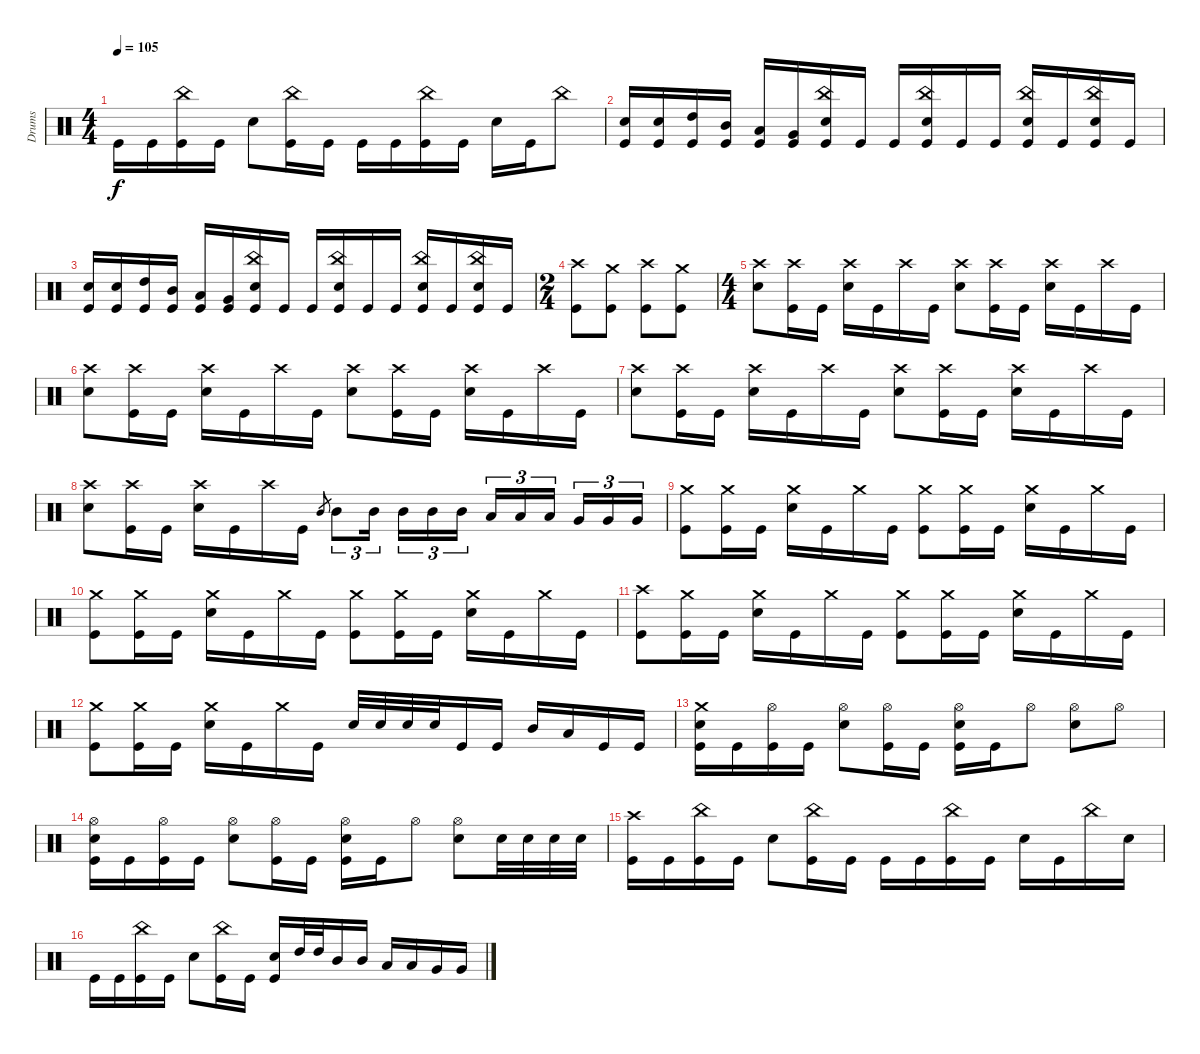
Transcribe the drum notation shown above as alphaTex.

\track ("Drums" "Drums") {instrument percussion}
\staff {score}
\articulation defaults
\ts (4 4)
\tempo 105
\clef neutral
\ks c "Kick (hit)".16{dy f} "Kick (hit)".16
("China (hit)" "Kick (hit)").16 "Kick (hit)".16 "Electric Snare (hit)".8 ("China (hit)" "Kick (hit)").16 "Kick (hit)".16 "Kick (hit)".16 "Kick (hit)".16 ("China (hit)" "Kick (hit)").16 "Kick (hit)".16 "Electric Snare (hit)".16 "Kick (hit)".16 "China (hit)".8 |
("Electric Snare (hit)" "Kick (hit)").16 ("Electric Snare (hit)" "Kick (hit)").16 ("High Tom (hit)" "Kick (hit)").16 ("Mid Tom (hit)" "Kick (hit)").16 ("Low Tom (hit)" "Kick (hit)").16 ("Very Low Tom (hit)" "Kick (hit)").16 ("China (hit)" "Electric Snare (hit)" "Kick (hit)").16 "Kick (hit)".16 "Kick (hit)".16 ("China (hit)" "Electric Snare (hit)" "Kick (hit)").16 "Kick (hit)".16 "Kick (hit)".16 ("China (hit)" "Electric Snare (hit)" "Kick (hit)").16 "Kick (hit)".16 ("China (hit)" "Electric Snare (hit)" "Kick (hit)").16 "Kick (hit)".16 |
("Electric Snare (hit)" "Kick (hit)").16 ("Electric Snare (hit)" "Kick (hit)").16 ("High Tom (hit)" "Kick (hit)").16 ("Mid Tom (hit)" "Kick (hit)").16 ("Low Tom (hit)" "Kick (hit)").16 ("Very Low Tom (hit)" "Kick (hit)").16 ("China (hit)" "Electric Snare (hit)" "Kick (hit)").16 "Kick (hit)".16 "Kick (hit)".16 ("China (hit)" "Electric Snare (hit)" "Kick (hit)").16 "Kick (hit)".16 "Kick (hit)".16 ("China (hit)" "Electric Snare (hit)" "Kick (hit)").16 "Kick (hit)".16 ("China (hit)" "Electric Snare (hit)" "Kick (hit)").16 "Kick (hit)".16 |
\ts (2 4)
("Crash high (hit)" "Kick (hit)").8 ("Crash medium (hit)" "Kick (hit)").8 ("Crash high (hit)" "Kick (hit)").8 ("Crash medium (hit)" "Kick (hit)").8 |
\ts (4 4)
("Crash high (hit)" "Electric Snare (hit)").8 ("Crash high (hit)" "Kick (hit)").16 "Kick (hit)".16 ("Crash high (hit)" "Electric Snare (hit)").16 "Kick (hit)".16 "Crash high (hit)".16 "Kick (hit)".16 ("Crash high (hit)" "Electric Snare (hit)").8 ("Crash high (hit)" "Kick (hit)").16 "Kick (hit)".16 ("Crash high (hit)" "Electric Snare (hit)").16 "Kick (hit)".16 "Crash high (hit)".16 "Kick (hit)".16 |
("Crash high (hit)" "Electric Snare (hit)").8 ("Crash high (hit)" "Kick (hit)").16 "Kick (hit)".16 ("Crash high (hit)" "Electric Snare (hit)").16 "Kick (hit)".16 "Crash high (hit)".16 "Kick (hit)".16 ("Crash high (hit)" "Electric Snare (hit)").8 ("Crash high (hit)" "Kick (hit)").16 "Kick (hit)".16 ("Crash high (hit)" "Electric Snare (hit)").16 "Kick (hit)".16 "Crash high (hit)".16 "Kick (hit)".16 |
("Crash high (hit)" "Electric Snare (hit)").8 ("Crash high (hit)" "Kick (hit)").16 "Kick (hit)".16 ("Crash high (hit)" "Electric Snare (hit)").16 "Kick (hit)".16 "Crash high (hit)".16 "Kick (hit)".16 ("Crash high (hit)" "Electric Snare (hit)").8 ("Crash high (hit)" "Kick (hit)").16 "Kick (hit)".16 ("Crash high (hit)" "Electric Snare (hit)").16 "Kick (hit)".16 "Crash high (hit)".16 "Kick (hit)".16 |
("Crash high (hit)" "Electric Snare (hit)").8 ("Crash high (hit)" "Kick (hit)").16 "Kick (hit)".16 ("Crash high (hit)" "Electric Snare (hit)").16 "Kick (hit)".16 "Crash high (hit)".16 "Kick (hit)".16 "Mid Tom (hit)".8{gr} "Mid Tom (hit)".8{tu (3 2)} "Mid Tom (hit)".16{tu (3 2)} "Mid Tom (hit)".16{tu (3 2)} "Mid Tom (hit)".16{tu (3 2)} "Mid Tom (hit)".16{tu (3 2)} "Low Tom (hit)".16{tu (3 2)} "Low Tom (hit)".16{tu (3 2)} "Low Tom (hit)".16{tu (3 2)} "Very Low Tom (hit)".16{tu (3 2)} "Very Low Tom (hit)".16{tu (3 2)} "Very Low Tom (hit)".16{tu (3 2)} |
("Crash medium (hit)" "Kick (hit)").8 ("Crash medium (hit)" "Kick (hit)").16 "Kick (hit)".16 ("Crash medium (hit)" "Electric Snare (hit)").16 "Kick (hit)".16 "Crash medium (hit)".16 "Kick (hit)".16 ("Crash medium (hit)" "Kick (hit)").8 ("Crash medium (hit)" "Kick (hit)").16 "Kick (hit)".16 ("Crash medium (hit)" "Electric Snare (hit)").16 "Kick (hit)".16 "Crash medium (hit)".16 "Kick (hit)".16 |
("Crash medium (hit)" "Kick (hit)").8 ("Crash medium (hit)" "Kick (hit)").16 "Kick (hit)".16 ("Crash medium (hit)" "Electric Snare (hit)").16 "Kick (hit)".16 "Crash medium (hit)".16 "Kick (hit)".16 ("Crash medium (hit)" "Kick (hit)").8 ("Crash medium (hit)" "Kick (hit)").16 "Kick (hit)".16 ("Crash medium (hit)" "Electric Snare (hit)").16 "Kick (hit)".16 "Crash medium (hit)".16 "Kick (hit)".16 |
("Crash high (hit)" "Kick (hit)").8 ("Crash medium (hit)" "Kick (hit)").16 "Kick (hit)".16 ("Crash medium (hit)" "Electric Snare (hit)").16 "Kick (hit)".16 "Crash medium (hit)".16 "Kick (hit)".16 ("Crash medium (hit)" "Kick (hit)").8 ("Crash medium (hit)" "Kick (hit)").16 "Kick (hit)".16 ("Crash medium (hit)" "Electric Snare (hit)").16 "Kick (hit)".16 "Crash medium (hit)".16 "Kick (hit)".16 |
("Crash medium (hit)" "Kick (hit)").8 ("Crash medium (hit)" "Kick (hit)").16 "Kick (hit)".16 ("Crash medium (hit)" "Electric Snare (hit)").16 "Kick (hit)".16 "Crash medium (hit)".16 "Kick (hit)".16 "Electric Snare (hit)".32 "Electric Snare (hit)".32 "Electric Snare (hit)".32 "Electric Snare (hit)".32 "Kick (hit)".16 "Kick (hit)".16 "Mid Tom (hit)".16 "Low Tom (hit)".16 "Kick (hit)".16 "Kick (hit)".16 |
("Crash medium (hit)" "Electric Snare (hit)" "Kick (hit)").16 "Kick (hit)".16 ("Hi-Hat (open)" "Kick (hit)").16 "Kick (hit)".16 ("Hi-Hat (open)" "Electric Snare (hit)").8 ("Hi-Hat (open)" "Kick (hit)").16 "Kick (hit)".16 ("Hi-Hat (open)" "Electric Snare (hit)" "Kick (hit)").16 "Kick (hit)".16 "Hi-Hat (open)".8 ("Hi-Hat (open)" "Electric Snare (hit)").8 "Hi-Hat (open)".8 |
("Hi-Hat (open)" "Electric Snare (hit)" "Kick (hit)").16 "Kick (hit)".16 ("Hi-Hat (open)" "Kick (hit)").16 "Kick (hit)".16 ("Hi-Hat (open)" "Electric Snare (hit)").8 ("Hi-Hat (open)" "Kick (hit)").16 "Kick (hit)".16 ("Hi-Hat (open)" "Electric Snare (hit)" "Kick (hit)").16 "Kick (hit)".16 "Hi-Hat (open)".8 ("Hi-Hat (open)" "Electric Snare (hit)").8 "Electric Snare (hit)".32 "Electric Snare (hit)".32 "Electric Snare (hit)".32 "Electric Snare (hit)".32 |
("Crash high (hit)" "Kick (hit)").16 "Kick (hit)".16 ("China (hit)" "Kick (hit)").16 "Kick (hit)".16 "Electric Snare (hit)".8 ("China (hit)" "Kick (hit)").16 "Kick (hit)".16 "Kick (hit)".16 "Kick (hit)".16 ("China (hit)" "Kick (hit)").16 "Kick (hit)".16 "Electric Snare (hit)".16 "Kick (hit)".16 "China (hit)".16 "Electric Snare (hit)".16 |
"Kick (hit)".16 "Kick (hit)".16 ("China (hit)" "Kick (hit)").16 "Kick (hit)".16 "Electric Snare (hit)".8 ("China (hit)" "Kick (hit)").16 "Kick (hit)".16 ("Electric Snare (hit)" "Kick (hit)").16 "High Tom (hit)".32 "High Tom (hit)".32 "Mid Tom (hit)".16 "Mid Tom (hit)".16 "Low Tom (hit)".16 "Low Tom (hit)".16 "Very Low Tom (hit)".16 "Very Low Tom (hit)".16
